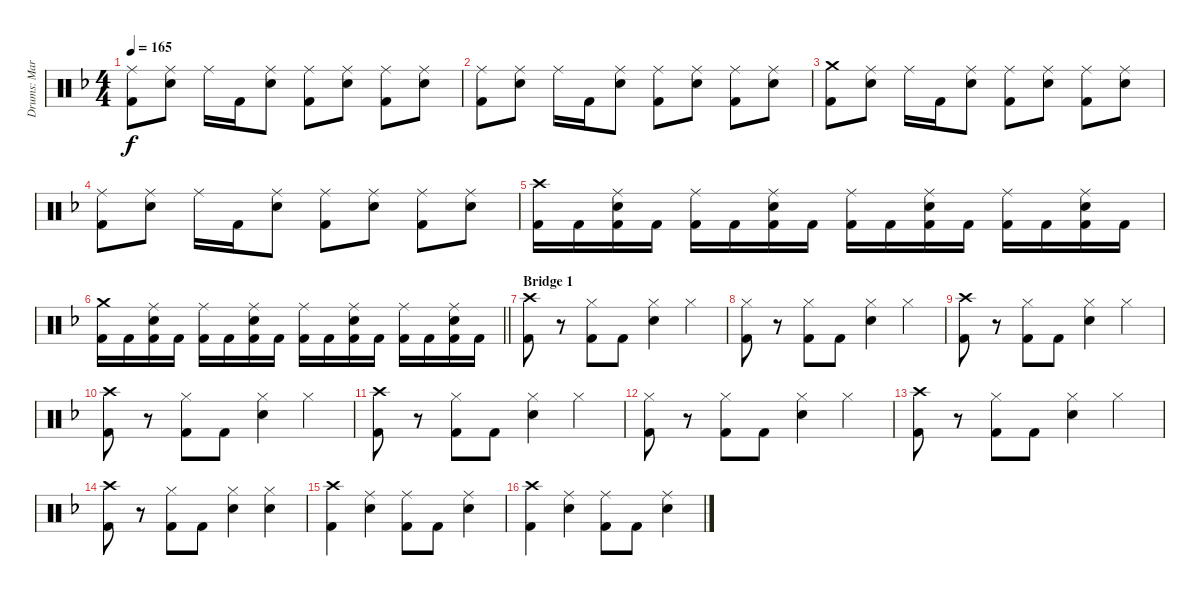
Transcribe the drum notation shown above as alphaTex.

\track ("Drums: Martin Herzinger" "Drums: Mar") {instrument percussion}
\staff {score}
\articulation defaults
\ts (4 4)
\tempo 165
\clef neutral
\ks dminor
("Ride (middle)" "Kick (hit) 2").8{dy f} ("Ride (middle)" "Snare (hit) 2").8 "Ride (middle)".16 "Kick (hit) 2".16 ("Ride (middle)" "Snare (hit) 2").8 ("Ride (middle)" "Kick (hit) 2").8 ("Ride (middle)" "Snare (hit) 2").8 ("Ride (middle)" "Kick (hit) 2").8 ("Ride (middle)" "Snare (hit) 2").8 |
("Ride (middle)" "Kick (hit) 2").8 ("Ride (middle)" "Snare (hit) 2").8 "Ride (middle)".16 "Kick (hit) 2".16 ("Ride (middle)" "Snare (hit) 2").8 ("Ride (middle)" "Kick (hit) 2").8 ("Ride (middle)" "Snare (hit) 2").8 ("Ride (middle)" "Kick (hit) 2").8 ("Ride (middle)" "Snare (hit) 2").8 |
("Crash medium (hit)" "Kick (hit) 2").8 ("Ride (middle)" "Snare (hit) 2").8 "Ride (middle)".16 "Kick (hit) 2".16 ("Ride (middle)" "Snare (hit) 2").8 ("Ride (middle)" "Kick (hit) 2").8 ("Ride (middle)" "Snare (hit) 2").8 ("Ride (middle)" "Kick (hit) 2").8 ("Ride (middle)" "Snare (hit) 2").8 |
("Ride (middle)" "Kick (hit) 2").8 ("Ride (middle)" "Snare (hit) 2").8 "Ride (middle)".16 "Kick (hit) 2".16 ("Ride (middle)" "Snare (hit) 2").8 ("Ride (middle)" "Kick (hit) 2").8 ("Ride (middle)" "Snare (hit) 2").8 ("Ride (middle)" "Kick (hit) 2").8 ("Ride (middle)" "Snare (hit) 2").8 |
("Crash high (hit)" "Kick (hit) 2").16 "Kick (hit) 2".16 ("Ride (middle)" "Snare (hit) 2" "Kick (hit) 2").16 "Kick (hit) 2".16 ("Ride (middle)" "Kick (hit) 2").16 "Kick (hit) 2".16 ("Ride (middle)" "Snare (hit) 2" "Kick (hit) 2").16 "Kick (hit) 2".16 ("Ride (middle)" "Kick (hit) 2").16 "Kick (hit) 2".16 ("Ride (middle)" "Snare (hit) 2" "Kick (hit) 2").16 "Kick (hit) 2".16 ("Ride (middle)" "Kick (hit) 2").16 "Kick (hit) 2".16 ("Ride (middle)" "Snare (hit) 2" "Kick (hit) 2").16 "Kick (hit) 2".16 |
\barLineRight lightlight
("Crash medium (hit)" "Kick (hit) 2").16 "Kick (hit) 2".16 ("Ride (middle)" "Snare (hit) 2" "Kick (hit) 2").16 "Kick (hit) 2".16 ("Ride (middle)" "Kick (hit) 2").16 "Kick (hit) 2".16 ("Ride (middle)" "Snare (hit) 2" "Kick (hit) 2").16 "Kick (hit) 2".16 ("Ride (middle)" "Kick (hit) 2").16 "Kick (hit) 2".16 ("Ride (middle)" "Snare (hit) 2" "Kick (hit) 2").16 "Kick (hit) 2".16 ("Ride (middle)" "Kick (hit) 2").16 "Kick (hit) 2".16 ("Ride (middle)" "Snare (hit) 2" "Kick (hit) 2").16 "Kick (hit) 2".16 |
\section ("" "Bridge 1")
("Crash high (hit)" "Kick (hit) 2").8 r.8 ("Hi-Hat (closed)" "Kick (hit) 2").8 "Kick (hit) 2".8 ("Hi-Hat (closed)" "Snare (hit) 2").4 "Hi-Hat (closed)".4 |
("Hi-Hat (closed)" "Kick (hit) 2").8 r.8 ("Hi-Hat (closed)" "Kick (hit) 2").8 "Kick (hit) 2".8 ("Hi-Hat (closed)" "Snare (hit) 2").4 "Hi-Hat (closed)".4 |
("Crash high (hit)" "Kick (hit) 2").8 r.8 ("Hi-Hat (closed)" "Kick (hit) 2").8 "Kick (hit) 2".8 ("Hi-Hat (closed)" "Snare (hit) 2").4 "Hi-Hat (closed)".4 |
("Crash high (hit)" "Kick (hit) 2").8 r.8 ("Hi-Hat (closed)" "Kick (hit) 2").8 "Kick (hit) 2".8 ("Hi-Hat (closed)" "Snare (hit) 2").4 "Hi-Hat (closed)".4 |
("Crash high (hit)" "Kick (hit) 2").8 r.8 ("Hi-Hat (closed)" "Kick (hit) 2").8 "Kick (hit) 2".8 ("Hi-Hat (closed)" "Snare (hit) 2").4 "Hi-Hat (closed)".4 |
("Hi-Hat (closed)" "Kick (hit) 2").8 r.8 ("Hi-Hat (closed)" "Kick (hit) 2").8 "Kick (hit) 2".8 ("Hi-Hat (closed)" "Snare (hit) 2").4 "Hi-Hat (closed)".4 |
("Crash high (hit)" "Kick (hit) 2").8 r.8 ("Hi-Hat (closed)" "Kick (hit) 2").8 "Kick (hit) 2".8 ("Hi-Hat (closed)" "Snare (hit) 2").4 "Hi-Hat (closed)".4 |
("Crash high (hit)" "Kick (hit) 2").8 r.8 ("Hi-Hat (closed)" "Kick (hit) 2").8 "Kick (hit) 2".8 ("Hi-Hat (closed)" "Snare (hit) 2").4 ("Hi-Hat (closed)" "Snare (hit) 2").4 |
("Crash high (hit)" "Kick (hit) 2").4 ("Ride (middle)" "Snare (hit) 2").4 ("Ride (middle)" "Kick (hit) 2").8 "Kick (hit) 2".8 ("Ride (middle)" "Snare (hit) 2").4 |
("Crash high (hit)" "Kick (hit) 2").4 ("Ride (middle)" "Snare (hit) 2").4 ("Ride (middle)" "Kick (hit) 2").8 "Kick (hit) 2".8 ("Ride (middle)" "Snare (hit) 2").4
